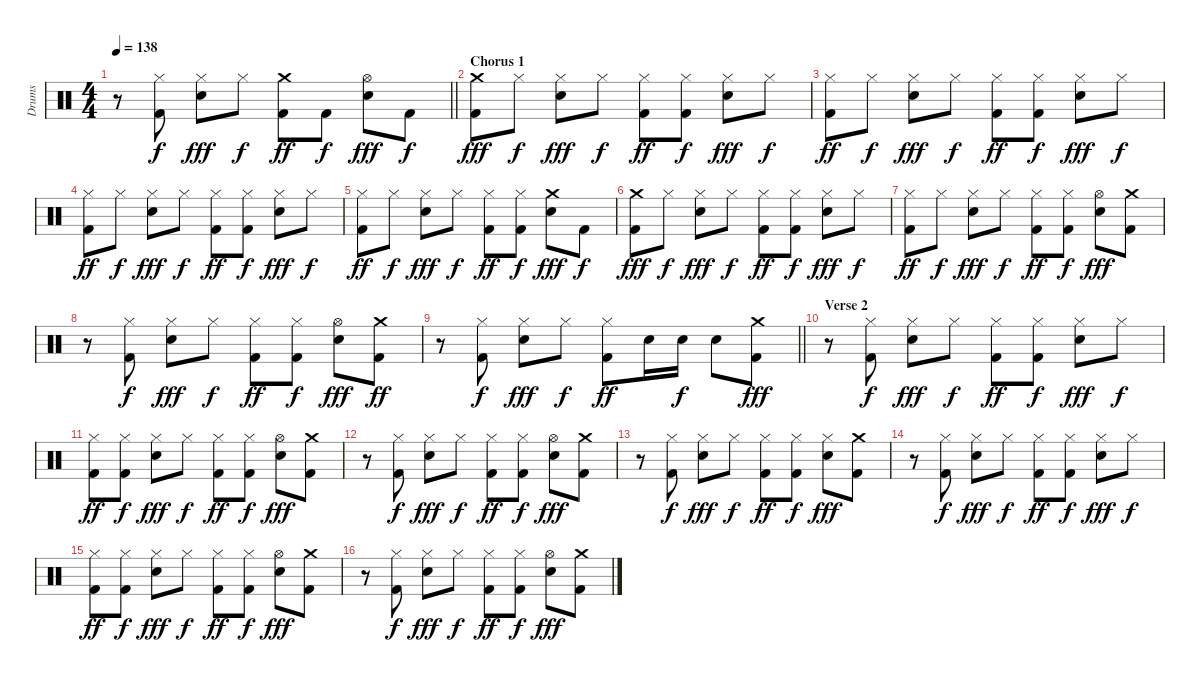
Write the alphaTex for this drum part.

\track ("Drums" "Drums") {instrument percussion}
\staff {score}
\articulation defaults
\ts (4 4)
\tempo 138
\clef neutral
\barLineRight lightlight
\ks c
r.8{dy fff} ("Kick (hit) 2" "Hi-Hat (closed)").8{dy f} ("Snare (hit) 2" "Hi-Hat (closed)").8{dy fff} "Hi-Hat (closed)".8{dy f} ("Kick (hit) 2" "Crash medium (hit)").8{dy ff} "Kick (hit) 2".8{dy f} ("Snare (hit) 2" "Hi-Hat (open)").8{dy fff} "Kick (hit) 2".8{dy f} |
\section ("" "Chorus 1")
("Kick (hit) 2" "Crash medium (hit)").8{dy fff} "Hi-Hat (closed)".8{dy f} ("Snare (hit) 2" "Hi-Hat (closed)").8{dy fff} "Hi-Hat (closed)".8{dy f} ("Kick (hit) 2" "Hi-Hat (closed)").8{dy ff} ("Kick (hit) 2" "Hi-Hat (closed)").8{dy f} ("Snare (hit) 2" "Hi-Hat (closed)").8{dy fff} "Hi-Hat (closed)".8{dy f} |
("Kick (hit) 2" "Hi-Hat (closed)").8{dy ff} "Hi-Hat (closed)".8{dy f} ("Snare (hit) 2" "Hi-Hat (closed)").8{dy fff} "Hi-Hat (closed)".8{dy f} ("Kick (hit) 2" "Hi-Hat (closed)").8{dy ff} ("Kick (hit) 2" "Hi-Hat (closed)").8{dy f} ("Snare (hit) 2" "Hi-Hat (closed)").8{dy fff} "Hi-Hat (closed)".8{dy f} |
("Kick (hit) 2" "Hi-Hat (closed)").8{dy ff} "Hi-Hat (closed)".8{dy f} ("Snare (hit) 2" "Hi-Hat (closed)").8{dy fff} "Hi-Hat (closed)".8{dy f} ("Kick (hit) 2" "Hi-Hat (closed)").8{dy ff} ("Kick (hit) 2" "Hi-Hat (closed)").8{dy f} ("Snare (hit) 2" "Hi-Hat (closed)").8{dy fff} "Hi-Hat (closed)".8{dy f} |
("Kick (hit) 2" "Hi-Hat (closed)").8{dy ff} "Hi-Hat (closed)".8{dy f} ("Snare (hit) 2" "Hi-Hat (closed)").8{dy fff} "Hi-Hat (closed)".8{dy f} ("Kick (hit) 2" "Hi-Hat (closed)").8{dy ff} ("Kick (hit) 2" "Hi-Hat (closed)").8{dy f} ("Crash medium (hit)" "Snare (hit) 2").8{dy fff} "Kick (hit) 2".8{dy f} |
("Kick (hit) 2" "Crash medium (hit)").8{dy fff} "Hi-Hat (closed)".8{dy f} ("Snare (hit) 2" "Hi-Hat (closed)").8{dy fff} "Hi-Hat (closed)".8{dy f} ("Kick (hit) 2" "Hi-Hat (closed)").8{dy ff} ("Kick (hit) 2" "Hi-Hat (closed)").8{dy f} ("Snare (hit) 2" "Hi-Hat (closed)").8{dy fff} "Hi-Hat (closed)".8{dy f} |
("Kick (hit) 2" "Hi-Hat (closed)").8{dy ff} "Hi-Hat (closed)".8{dy f} ("Snare (hit) 2" "Hi-Hat (closed)").8{dy fff} "Hi-Hat (closed)".8{dy f} ("Kick (hit) 2" "Hi-Hat (closed)").8{dy ff} ("Kick (hit) 2" "Hi-Hat (closed)").8{dy f} ("Hi-Hat (open)" "Snare (hit) 2").8{dy fff} ("Kick (hit) 2" "Crash medium (hit)").8 |
r.8 ("Kick (hit) 2" "Hi-Hat (closed)").8{dy f} ("Snare (hit) 2" "Hi-Hat (closed)").8{dy fff} "Hi-Hat (closed)".8{dy f} ("Kick (hit) 2" "Hi-Hat (closed)").8{dy ff} ("Kick (hit) 2" "Hi-Hat (closed)").8{dy f} ("Hi-Hat (open)" "Snare (hit) 2").8{dy fff} ("Crash medium (hit)" "Kick (hit) 2").8{dy ff} |
\barLineRight lightlight
r.8 ("Kick (hit) 2" "Hi-Hat (closed)").8{dy f} ("Snare (hit) 2" "Hi-Hat (closed)").8{dy fff} "Hi-Hat (closed)".8{dy f} ("Kick (hit) 2" "Hi-Hat (closed)").8{dy ff} "Snare (hit) 2".16 "Snare (hit) 2".16{dy f} "Snare (hit) 2".8 ("Kick (hit) 2" "Crash medium (hit)").8{dy fff} |
\section ("" "Verse 2")
r.8 ("Kick (hit) 2" "Hi-Hat (closed)").8{dy f} ("Snare (hit) 2" "Hi-Hat (closed)").8{dy fff} "Hi-Hat (closed)".8{dy f} ("Kick (hit) 2" "Hi-Hat (closed)").8{dy ff} ("Kick (hit) 2" "Hi-Hat (closed)").8{dy f} ("Snare (hit) 2" "Hi-Hat (closed)").8{dy fff} "Hi-Hat (closed)".8{dy f} |
("Kick (hit) 2" "Hi-Hat (closed)").8{dy ff} ("Kick (hit) 2" "Hi-Hat (closed)").8{dy f} ("Snare (hit) 2" "Hi-Hat (closed)").8{dy fff} "Hi-Hat (closed)".8{dy f} ("Kick (hit) 2" "Hi-Hat (closed)").8{dy ff} ("Kick (hit) 2" "Hi-Hat (closed)").8{dy f} ("Snare (hit) 2" "Hi-Hat (open)").8{dy fff} ("Kick (hit) 2" "Crash medium (hit)").8 |
r.8 ("Kick (hit) 2" "Hi-Hat (closed)").8{dy f} ("Snare (hit) 2" "Hi-Hat (closed)").8{dy fff} "Hi-Hat (closed)".8{dy f} ("Kick (hit) 2" "Hi-Hat (closed)").8{dy ff} ("Kick (hit) 2" "Hi-Hat (closed)").8{dy f} ("Snare (hit) 2" "Hi-Hat (open)").8{dy fff} ("Kick (hit) 2" "Crash medium (hit)").8 |
r.8 ("Kick (hit) 2" "Hi-Hat (closed)").8{dy f} ("Snare (hit) 2" "Hi-Hat (closed)").8{dy fff} "Hi-Hat (closed)".8{dy f} ("Kick (hit) 2" "Hi-Hat (closed)").8{dy ff} ("Kick (hit) 2" "Hi-Hat (closed)").8{dy f} ("Snare (hit) 2" "Hi-Hat (closed)").8{dy fff} ("Kick (hit) 2" "Crash medium (hit)").8 |
r.8 ("Kick (hit) 2" "Hi-Hat (closed)").8{dy f} ("Snare (hit) 2" "Hi-Hat (closed)").8{dy fff} "Hi-Hat (closed)".8{dy f} ("Kick (hit) 2" "Hi-Hat (closed)").8{dy ff} ("Kick (hit) 2" "Hi-Hat (closed)").8{dy f} ("Snare (hit) 2" "Hi-Hat (closed)").8{dy fff} "Hi-Hat (closed)".8{dy f} |
("Kick (hit) 2" "Hi-Hat (closed)").8{dy ff} ("Kick (hit) 2" "Hi-Hat (closed)").8{dy f} ("Snare (hit) 2" "Hi-Hat (closed)").8{dy fff} "Hi-Hat (closed)".8{dy f} ("Kick (hit) 2" "Hi-Hat (closed)").8{dy ff} ("Kick (hit) 2" "Hi-Hat (closed)").8{dy f} ("Snare (hit) 2" "Hi-Hat (open)").8{dy fff} ("Kick (hit) 2" "Crash medium (hit)").8 |
r.8 ("Kick (hit) 2" "Hi-Hat (closed)").8{dy f} ("Snare (hit) 2" "Hi-Hat (closed)").8{dy fff} "Hi-Hat (closed)".8{dy f} ("Kick (hit) 2" "Hi-Hat (closed)").8{dy ff} ("Kick (hit) 2" "Hi-Hat (closed)").8{dy f} ("Snare (hit) 2" "Hi-Hat (open)").8{dy fff} ("Kick (hit) 2" "Crash medium (hit)").8
